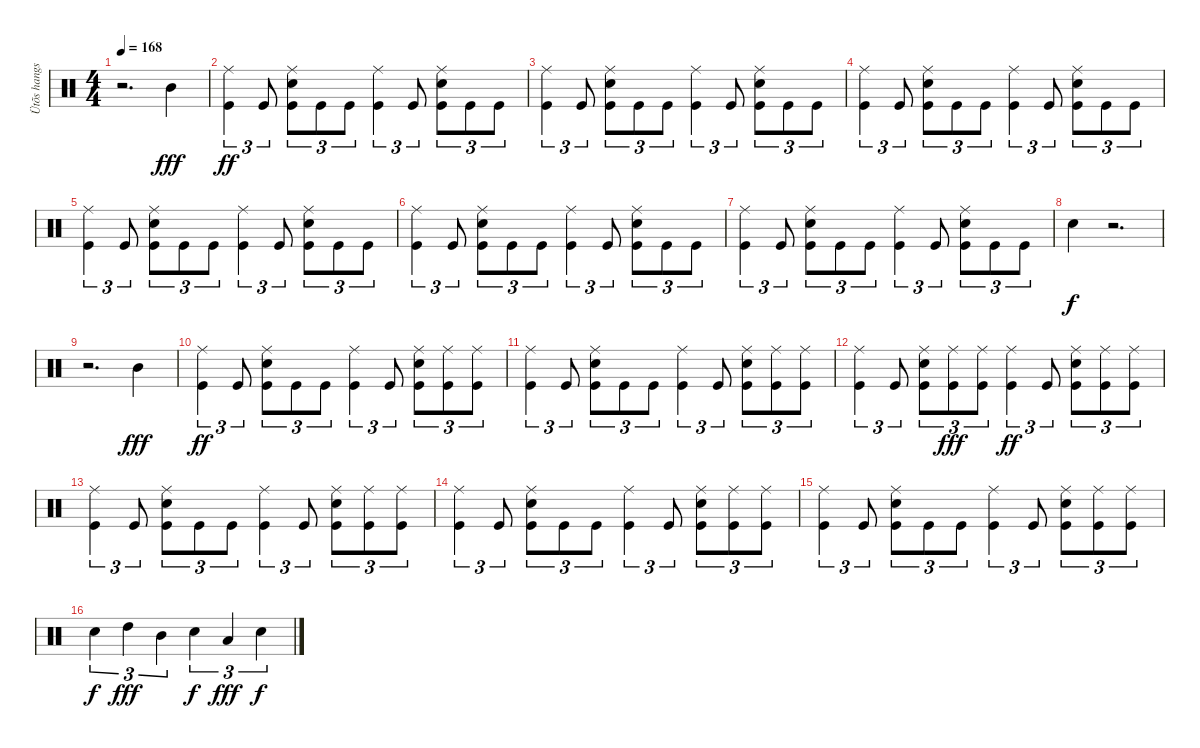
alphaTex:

\track ("Ütõs hangszer" "Ütõs hangs") {instrument percussion}
\staff {score}
\articulation defaults
\ts (4 4)
\tempo 168
\clef neutral
\ks c
r.2{d dy f} "Mid Tom (hit)".4{dy fff} |
("Ride (middle)" "Kick (hit)").4{tu (3 2) dy ff} "Kick (hit)".8{tu (3 2)} ("Ride (middle)" "Electric Snare (hit)" "Kick (hit)").8{tu (3 2)} "Kick (hit)".8{tu (3 2)} "Kick (hit)".8{tu (3 2)} ("Ride (middle)" "Kick (hit)").4{tu (3 2)} "Kick (hit)".8{tu (3 2)} ("Ride (middle)" "Electric Snare (hit)" "Kick (hit)").8{tu (3 2)} "Kick (hit)".8{tu (3 2)} "Kick (hit)".8{tu (3 2)} |
("Ride (middle)" "Kick (hit)").4{tu (3 2)} "Kick (hit)".8{tu (3 2)} ("Ride (middle)" "Electric Snare (hit)" "Kick (hit)").8{tu (3 2)} "Kick (hit)".8{tu (3 2)} "Kick (hit)".8{tu (3 2)} ("Ride (middle)" "Kick (hit)").4{tu (3 2)} "Kick (hit)".8{tu (3 2)} ("Ride (middle)" "Electric Snare (hit)" "Kick (hit)").8{tu (3 2)} "Kick (hit)".8{tu (3 2)} "Kick (hit)".8{tu (3 2)} |
("Ride (middle)" "Kick (hit)").4{tu (3 2)} "Kick (hit)".8{tu (3 2)} ("Ride (middle)" "Electric Snare (hit)" "Kick (hit)").8{tu (3 2)} "Kick (hit)".8{tu (3 2)} "Kick (hit)".8{tu (3 2)} ("Ride (middle)" "Kick (hit)").4{tu (3 2)} "Kick (hit)".8{tu (3 2)} ("Ride (middle)" "Electric Snare (hit)" "Kick (hit)").8{tu (3 2)} "Kick (hit)".8{tu (3 2)} "Kick (hit)".8{tu (3 2)} |
("Ride (middle)" "Kick (hit)").4{tu (3 2)} "Kick (hit)".8{tu (3 2)} ("Ride (middle)" "Electric Snare (hit)" "Kick (hit)").8{tu (3 2)} "Kick (hit)".8{tu (3 2)} "Kick (hit)".8{tu (3 2)} ("Ride (middle)" "Kick (hit)").4{tu (3 2)} "Kick (hit)".8{tu (3 2)} ("Ride (middle)" "Electric Snare (hit)" "Kick (hit)").8{tu (3 2)} "Kick (hit)".8{tu (3 2)} "Kick (hit)".8{tu (3 2)} |
("Ride (middle)" "Kick (hit)").4{tu (3 2)} "Kick (hit)".8{tu (3 2)} ("Ride (middle)" "Electric Snare (hit)" "Kick (hit)").8{tu (3 2)} "Kick (hit)".8{tu (3 2)} "Kick (hit)".8{tu (3 2)} ("Ride (middle)" "Kick (hit)").4{tu (3 2)} "Kick (hit)".8{tu (3 2)} ("Ride (middle)" "Electric Snare (hit)" "Kick (hit)").8{tu (3 2)} "Kick (hit)".8{tu (3 2)} "Kick (hit)".8{tu (3 2)} |
("Ride (middle)" "Kick (hit)").4{tu (3 2)} "Kick (hit)".8{tu (3 2)} ("Ride (middle)" "Electric Snare (hit)" "Kick (hit)").8{tu (3 2)} "Kick (hit)".8{tu (3 2)} "Kick (hit)".8{tu (3 2)} ("Ride (middle)" "Kick (hit)").4{tu (3 2)} "Kick (hit)".8{tu (3 2)} ("Ride (middle)" "Electric Snare (hit)" "Kick (hit)").8{tu (3 2)} "Kick (hit)".8{tu (3 2)} "Kick (hit)".8{tu (3 2)} |
"Electric Snare (hit)".4{dy f} r.2{d} |
r.2{d} "Mid Tom (hit)".4{dy fff} |
("Ride (middle)" "Kick (hit)").4{tu (3 2) dy ff} "Kick (hit)".8{tu (3 2)} ("Ride (middle)" "Electric Snare (hit)" "Kick (hit)").8{tu (3 2)} "Kick (hit)".8{tu (3 2)} "Kick (hit)".8{tu (3 2)} ("Ride (middle)" "Kick (hit)").4{tu (3 2)} "Kick (hit)".8{tu (3 2)} ("Ride (middle)" "Electric Snare (hit)" "Kick (hit)").8{tu (3 2)} ("Ride (middle)" "Kick (hit)").8{tu (3 2)} ("Ride (middle)" "Kick (hit)").8{tu (3 2)} |
("Ride (middle)" "Kick (hit)").4{tu (3 2)} "Kick (hit)".8{tu (3 2)} ("Ride (middle)" "Electric Snare (hit)" "Kick (hit)").8{tu (3 2)} "Kick (hit)".8{tu (3 2)} "Kick (hit)".8{tu (3 2)} ("Ride (middle)" "Kick (hit)").4{tu (3 2)} "Kick (hit)".8{tu (3 2)} ("Ride (middle)" "Electric Snare (hit)" "Kick (hit)").8{tu (3 2)} ("Ride (middle)" "Kick (hit)").8{tu (3 2)} ("Ride (middle)" "Kick (hit)").8{tu (3 2)} |
("Ride (middle)" "Kick (hit)").4{tu (3 2)} "Kick (hit)".8{tu (3 2)} ("Ride (middle)" "Electric Snare (hit)" "Kick (hit)").8{tu (3 2)} ("Kick (hit)" "Ride (middle)").8{tu (3 2) dy fff} ("Kick (hit)" "Ride (middle)").8{tu (3 2)} ("Ride (middle)" "Kick (hit)").4{tu (3 2) dy ff} "Kick (hit)".8{tu (3 2)} ("Ride (middle)" "Electric Snare (hit)" "Kick (hit)").8{tu (3 2)} ("Ride (middle)" "Kick (hit)").8{tu (3 2)} ("Ride (middle)" "Kick (hit)").8{tu (3 2)} |
("Ride (middle)" "Kick (hit)").4{tu (3 2)} "Kick (hit)".8{tu (3 2)} ("Ride (middle)" "Electric Snare (hit)" "Kick (hit)").8{tu (3 2)} "Kick (hit)".8{tu (3 2)} "Kick (hit)".8{tu (3 2)} ("Ride (middle)" "Kick (hit)").4{tu (3 2)} "Kick (hit)".8{tu (3 2)} ("Ride (middle)" "Electric Snare (hit)" "Kick (hit)").8{tu (3 2)} ("Ride (middle)" "Kick (hit)").8{tu (3 2)} ("Ride (middle)" "Kick (hit)").8{tu (3 2)} |
("Ride (middle)" "Kick (hit)").4{tu (3 2)} "Kick (hit)".8{tu (3 2)} ("Ride (middle)" "Electric Snare (hit)" "Kick (hit)").8{tu (3 2)} "Kick (hit)".8{tu (3 2)} "Kick (hit)".8{tu (3 2)} ("Ride (middle)" "Kick (hit)").4{tu (3 2)} "Kick (hit)".8{tu (3 2)} ("Ride (middle)" "Electric Snare (hit)" "Kick (hit)").8{tu (3 2)} ("Ride (middle)" "Kick (hit)").8{tu (3 2)} ("Ride (middle)" "Kick (hit)").8{tu (3 2)} |
("Ride (middle)" "Kick (hit)").4{tu (3 2)} "Kick (hit)".8{tu (3 2)} ("Ride (middle)" "Electric Snare (hit)" "Kick (hit)").8{tu (3 2)} "Kick (hit)".8{tu (3 2)} "Kick (hit)".8{tu (3 2)} ("Ride (middle)" "Kick (hit)").4{tu (3 2)} "Kick (hit)".8{tu (3 2)} ("Ride (middle)" "Electric Snare (hit)" "Kick (hit)").8{tu (3 2)} ("Ride (middle)" "Kick (hit)").8{tu (3 2)} ("Ride (middle)" "Kick (hit)").8{tu (3 2)} |
"Electric Snare (hit)".4{tu (3 2) dy f} "High Tom (hit)".4{tu (3 2) dy fff} "Mid Tom (hit)".4{tu (3 2)} "Electric Snare (hit)".4{tu (3 2) dy f} "Low Tom (hit)".4{tu (3 2) dy fff} "Electric Snare (hit)".4{tu (3 2) dy f}
